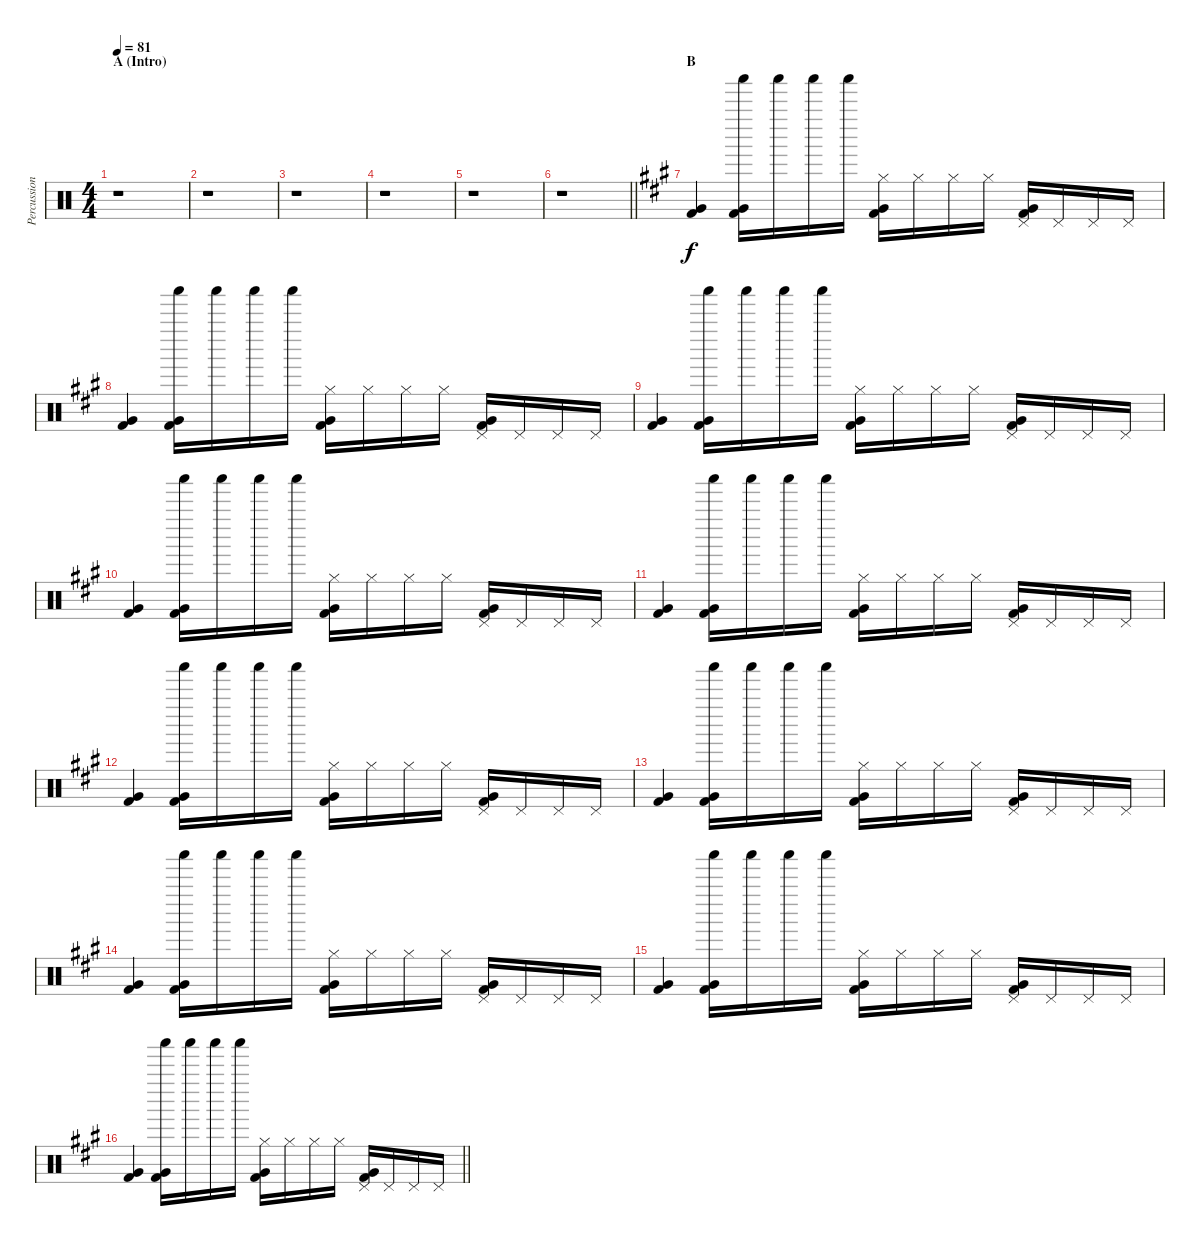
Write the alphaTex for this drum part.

\track ("Percussion" "Percussion") {instrument percussion}
\staff {score}
\articulation defaults
\ts (4 4)
\section ("" "A (Intro)")
\tempo 81
\clef neutral
\ks c
r.1{dy f} |
r.1 |
r.1 |
r.1 |
r.1 |
\barLineRight lightlight
r.1 |
\section ("" "B")
\ks f#minor
("Very Low Tom (hit)" "Kick (hit) 2").4 ("Very Low Tom (hit)" "Shaker (hit)" "Kick (hit) 2").16 "Shaker (hit)".16 "Shaker (hit)".16 "Shaker (hit)".16 ("Very Low Tom (hit)" "Hi-Hat (closed)" "Kick (hit) 2").16 "Hi-Hat (closed)".16 "Hi-Hat (closed)".16 "Hi-Hat (closed)".16 ("Very Low Tom (hit)" "Pedal Hi-Hat (hit)" "Kick (hit) 2").16 "Pedal Hi-Hat (hit)".16 "Pedal Hi-Hat (hit)".16 "Pedal Hi-Hat (hit)".16 |
("Very Low Tom (hit)" "Kick (hit) 2").4 ("Very Low Tom (hit)" "Shaker (hit)" "Kick (hit) 2").16 "Shaker (hit)".16 "Shaker (hit)".16 "Shaker (hit)".16 ("Very Low Tom (hit)" "Hi-Hat (closed)" "Kick (hit) 2").16 "Hi-Hat (closed)".16 "Hi-Hat (closed)".16 "Hi-Hat (closed)".16 ("Very Low Tom (hit)" "Pedal Hi-Hat (hit)" "Kick (hit) 2").16 "Pedal Hi-Hat (hit)".16 "Pedal Hi-Hat (hit)".16 "Pedal Hi-Hat (hit)".16 |
("Very Low Tom (hit)" "Kick (hit) 2").4 ("Very Low Tom (hit)" "Shaker (hit)" "Kick (hit) 2").16 "Shaker (hit)".16 "Shaker (hit)".16 "Shaker (hit)".16 ("Very Low Tom (hit)" "Hi-Hat (closed)" "Kick (hit) 2").16 "Hi-Hat (closed)".16 "Hi-Hat (closed)".16 "Hi-Hat (closed)".16 ("Very Low Tom (hit)" "Pedal Hi-Hat (hit)" "Kick (hit) 2").16 "Pedal Hi-Hat (hit)".16 "Pedal Hi-Hat (hit)".16 "Pedal Hi-Hat (hit)".16 |
("Very Low Tom (hit)" "Kick (hit) 2").4 ("Very Low Tom (hit)" "Shaker (hit)" "Kick (hit) 2").16 "Shaker (hit)".16 "Shaker (hit)".16 "Shaker (hit)".16 ("Very Low Tom (hit)" "Hi-Hat (closed)" "Kick (hit) 2").16 "Hi-Hat (closed)".16 "Hi-Hat (closed)".16 "Hi-Hat (closed)".16 ("Very Low Tom (hit)" "Pedal Hi-Hat (hit)" "Kick (hit) 2").16 "Pedal Hi-Hat (hit)".16 "Pedal Hi-Hat (hit)".16 "Pedal Hi-Hat (hit)".16 |
("Very Low Tom (hit)" "Kick (hit) 2").4 ("Very Low Tom (hit)" "Shaker (hit)" "Kick (hit) 2").16 "Shaker (hit)".16 "Shaker (hit)".16 "Shaker (hit)".16 ("Very Low Tom (hit)" "Hi-Hat (closed)" "Kick (hit) 2").16 "Hi-Hat (closed)".16 "Hi-Hat (closed)".16 "Hi-Hat (closed)".16 ("Very Low Tom (hit)" "Pedal Hi-Hat (hit)" "Kick (hit) 2").16 "Pedal Hi-Hat (hit)".16 "Pedal Hi-Hat (hit)".16 "Pedal Hi-Hat (hit)".16 |
("Very Low Tom (hit)" "Kick (hit) 2").4 ("Very Low Tom (hit)" "Shaker (hit)" "Kick (hit) 2").16 "Shaker (hit)".16 "Shaker (hit)".16 "Shaker (hit)".16 ("Very Low Tom (hit)" "Hi-Hat (closed)" "Kick (hit) 2").16 "Hi-Hat (closed)".16 "Hi-Hat (closed)".16 "Hi-Hat (closed)".16 ("Very Low Tom (hit)" "Pedal Hi-Hat (hit)" "Kick (hit) 2").16 "Pedal Hi-Hat (hit)".16 "Pedal Hi-Hat (hit)".16 "Pedal Hi-Hat (hit)".16 |
("Very Low Tom (hit)" "Kick (hit) 2").4 ("Very Low Tom (hit)" "Shaker (hit)" "Kick (hit) 2").16 "Shaker (hit)".16 "Shaker (hit)".16 "Shaker (hit)".16 ("Very Low Tom (hit)" "Hi-Hat (closed)" "Kick (hit) 2").16 "Hi-Hat (closed)".16 "Hi-Hat (closed)".16 "Hi-Hat (closed)".16 ("Very Low Tom (hit)" "Pedal Hi-Hat (hit)" "Kick (hit) 2").16 "Pedal Hi-Hat (hit)".16 "Pedal Hi-Hat (hit)".16 "Pedal Hi-Hat (hit)".16 |
("Very Low Tom (hit)" "Kick (hit) 2").4 ("Very Low Tom (hit)" "Shaker (hit)" "Kick (hit) 2").16 "Shaker (hit)".16 "Shaker (hit)".16 "Shaker (hit)".16 ("Very Low Tom (hit)" "Hi-Hat (closed)" "Kick (hit) 2").16 "Hi-Hat (closed)".16 "Hi-Hat (closed)".16 "Hi-Hat (closed)".16 ("Very Low Tom (hit)" "Pedal Hi-Hat (hit)" "Kick (hit) 2").16 "Pedal Hi-Hat (hit)".16 "Pedal Hi-Hat (hit)".16 "Pedal Hi-Hat (hit)".16 |
("Very Low Tom (hit)" "Kick (hit) 2").4 ("Very Low Tom (hit)" "Shaker (hit)" "Kick (hit) 2").16 "Shaker (hit)".16 "Shaker (hit)".16 "Shaker (hit)".16 ("Very Low Tom (hit)" "Hi-Hat (closed)" "Kick (hit) 2").16 "Hi-Hat (closed)".16 "Hi-Hat (closed)".16 "Hi-Hat (closed)".16 ("Very Low Tom (hit)" "Pedal Hi-Hat (hit)" "Kick (hit) 2").16 "Pedal Hi-Hat (hit)".16 "Pedal Hi-Hat (hit)".16 "Pedal Hi-Hat (hit)".16 |
\barLineRight lightlight
("Very Low Tom (hit)" "Kick (hit) 2").4 ("Very Low Tom (hit)" "Shaker (hit)" "Kick (hit) 2").16 "Shaker (hit)".16 "Shaker (hit)".16 "Shaker (hit)".16 ("Very Low Tom (hit)" "Hi-Hat (closed)" "Kick (hit) 2").16 "Hi-Hat (closed)".16 "Hi-Hat (closed)".16 "Hi-Hat (closed)".16 ("Very Low Tom (hit)" "Pedal Hi-Hat (hit)" "Kick (hit) 2").16 "Pedal Hi-Hat (hit)".16 "Pedal Hi-Hat (hit)".16 "Pedal Hi-Hat (hit)".16
